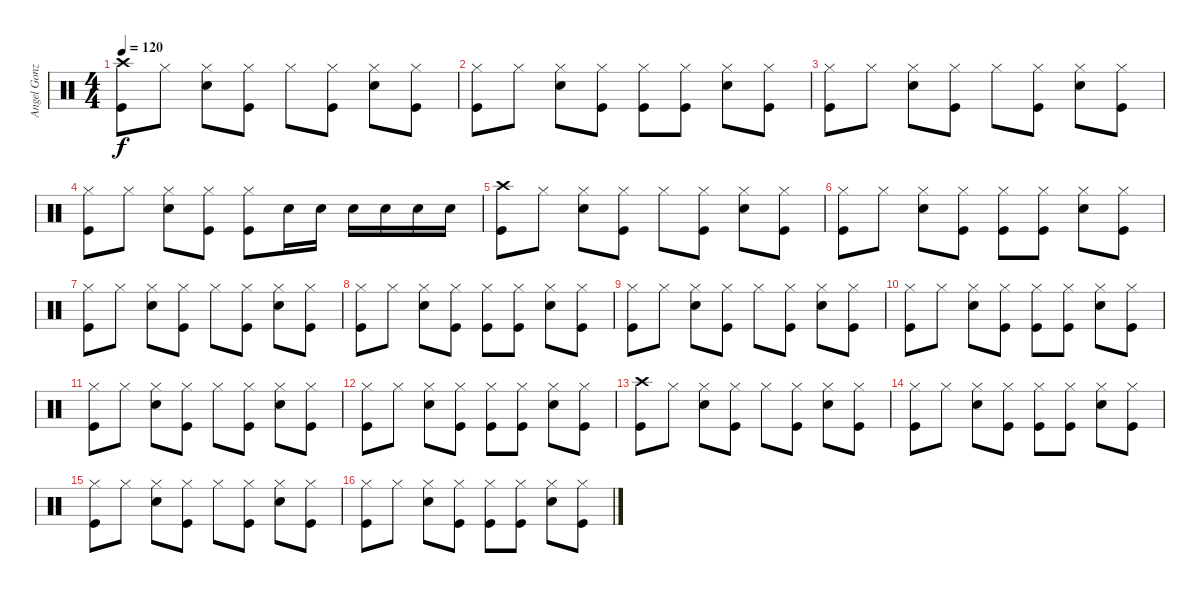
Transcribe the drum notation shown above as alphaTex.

\track ("Angel Gonzalez - Batería" "Angel Gonz") {instrument percussion}
\staff {score}
\articulation defaults
\ts (4 4)
\tempo 120
\clef neutral
\ks c
("Crash high (hit)" "Kick (hit)").8{dy f} "Hi-Hat (closed)".8 ("Hi-Hat (closed)" "Electric Snare (hit)").8 ("Hi-Hat (closed)" "Kick (hit)").8 "Hi-Hat (closed)".8 ("Hi-Hat (closed)" "Kick (hit)").8 ("Hi-Hat (closed)" "Electric Snare (hit)").8 ("Hi-Hat (closed)" "Kick (hit)").8 |
("Hi-Hat (closed)" "Kick (hit)").8 "Hi-Hat (closed)".8 ("Hi-Hat (closed)" "Electric Snare (hit)").8 ("Hi-Hat (closed)" "Kick (hit)").8 ("Hi-Hat (closed)" "Kick (hit)").8 ("Hi-Hat (closed)" "Kick (hit)").8 ("Hi-Hat (closed)" "Electric Snare (hit)").8 ("Hi-Hat (closed)" "Kick (hit)").8 |
("Hi-Hat (closed)" "Kick (hit)").8 "Hi-Hat (closed)".8 ("Hi-Hat (closed)" "Electric Snare (hit)").8 ("Hi-Hat (closed)" "Kick (hit)").8 "Hi-Hat (closed)".8 ("Hi-Hat (closed)" "Kick (hit)").8 ("Hi-Hat (closed)" "Electric Snare (hit)").8 ("Hi-Hat (closed)" "Kick (hit)").8 |
("Hi-Hat (closed)" "Kick (hit)").8 "Hi-Hat (closed)".8 ("Hi-Hat (closed)" "Electric Snare (hit)").8 ("Hi-Hat (closed)" "Kick (hit)").8 ("Hi-Hat (closed)" "Kick (hit)").8 "Electric Snare (hit)".16 "Electric Snare (hit)".16 "Electric Snare (hit)".16 "Electric Snare (hit)".16 "Electric Snare (hit)".16 "Electric Snare (hit)".16 |
("Crash high (hit)" "Kick (hit)").8 "Hi-Hat (closed)".8 ("Hi-Hat (closed)" "Electric Snare (hit)").8 ("Hi-Hat (closed)" "Kick (hit)").8 "Hi-Hat (closed)".8 ("Hi-Hat (closed)" "Kick (hit)").8 ("Hi-Hat (closed)" "Electric Snare (hit)").8 ("Hi-Hat (closed)" "Kick (hit)").8 |
("Hi-Hat (closed)" "Kick (hit)").8 "Hi-Hat (closed)".8 ("Hi-Hat (closed)" "Electric Snare (hit)").8 ("Hi-Hat (closed)" "Kick (hit)").8 ("Hi-Hat (closed)" "Kick (hit)").8 ("Hi-Hat (closed)" "Kick (hit)").8 ("Hi-Hat (closed)" "Electric Snare (hit)").8 ("Hi-Hat (closed)" "Kick (hit)").8 |
("Hi-Hat (closed)" "Kick (hit)").8 "Hi-Hat (closed)".8 ("Hi-Hat (closed)" "Electric Snare (hit)").8 ("Hi-Hat (closed)" "Kick (hit)").8 "Hi-Hat (closed)".8 ("Hi-Hat (closed)" "Kick (hit)").8 ("Hi-Hat (closed)" "Electric Snare (hit)").8 ("Hi-Hat (closed)" "Kick (hit)").8 |
("Hi-Hat (closed)" "Kick (hit)").8 "Hi-Hat (closed)".8 ("Hi-Hat (closed)" "Electric Snare (hit)").8 ("Hi-Hat (closed)" "Kick (hit)").8 ("Hi-Hat (closed)" "Kick (hit)").8 ("Hi-Hat (closed)" "Kick (hit)").8 ("Hi-Hat (closed)" "Electric Snare (hit)").8 ("Hi-Hat (closed)" "Kick (hit)").8 |
("Hi-Hat (closed)" "Kick (hit)").8 "Hi-Hat (closed)".8 ("Hi-Hat (closed)" "Electric Snare (hit)").8 ("Hi-Hat (closed)" "Kick (hit)").8 "Hi-Hat (closed)".8 ("Hi-Hat (closed)" "Kick (hit)").8 ("Hi-Hat (closed)" "Electric Snare (hit)").8 ("Hi-Hat (closed)" "Kick (hit)").8 |
("Hi-Hat (closed)" "Kick (hit)").8 "Hi-Hat (closed)".8 ("Hi-Hat (closed)" "Electric Snare (hit)").8 ("Hi-Hat (closed)" "Kick (hit)").8 ("Hi-Hat (closed)" "Kick (hit)").8 ("Hi-Hat (closed)" "Kick (hit)").8 ("Hi-Hat (closed)" "Electric Snare (hit)").8 ("Hi-Hat (closed)" "Kick (hit)").8 |
("Hi-Hat (closed)" "Kick (hit)").8 "Hi-Hat (closed)".8 ("Hi-Hat (closed)" "Electric Snare (hit)").8 ("Hi-Hat (closed)" "Kick (hit)").8 "Hi-Hat (closed)".8 ("Hi-Hat (closed)" "Kick (hit)").8 ("Hi-Hat (closed)" "Electric Snare (hit)").8 ("Hi-Hat (closed)" "Kick (hit)").8 |
("Hi-Hat (closed)" "Kick (hit)").8 "Hi-Hat (closed)".8 ("Hi-Hat (closed)" "Electric Snare (hit)").8 ("Hi-Hat (closed)" "Kick (hit)").8 ("Hi-Hat (closed)" "Kick (hit)").8 ("Hi-Hat (closed)" "Kick (hit)").8 ("Hi-Hat (closed)" "Electric Snare (hit)").8 ("Hi-Hat (closed)" "Kick (hit)").8 |
("Crash high (hit)" "Kick (hit)").8 "Hi-Hat (closed)".8 ("Hi-Hat (closed)" "Electric Snare (hit)").8 ("Hi-Hat (closed)" "Kick (hit)").8 "Hi-Hat (closed)".8 ("Hi-Hat (closed)" "Kick (hit)").8 ("Hi-Hat (closed)" "Electric Snare (hit)").8 ("Hi-Hat (closed)" "Kick (hit)").8 |
("Hi-Hat (closed)" "Kick (hit)").8 "Hi-Hat (closed)".8 ("Hi-Hat (closed)" "Electric Snare (hit)").8 ("Hi-Hat (closed)" "Kick (hit)").8 ("Hi-Hat (closed)" "Kick (hit)").8 ("Hi-Hat (closed)" "Kick (hit)").8 ("Hi-Hat (closed)" "Electric Snare (hit)").8 ("Hi-Hat (closed)" "Kick (hit)").8 |
("Hi-Hat (closed)" "Kick (hit)").8 "Hi-Hat (closed)".8 ("Hi-Hat (closed)" "Electric Snare (hit)").8 ("Hi-Hat (closed)" "Kick (hit)").8 "Hi-Hat (closed)".8 ("Hi-Hat (closed)" "Kick (hit)").8 ("Hi-Hat (closed)" "Electric Snare (hit)").8 ("Hi-Hat (closed)" "Kick (hit)").8 |
("Hi-Hat (closed)" "Kick (hit)").8 "Hi-Hat (closed)".8 ("Hi-Hat (closed)" "Electric Snare (hit)").8 ("Hi-Hat (closed)" "Kick (hit)").8 ("Hi-Hat (closed)" "Kick (hit)").8 ("Hi-Hat (closed)" "Kick (hit)").8 ("Hi-Hat (closed)" "Electric Snare (hit)").8 ("Hi-Hat (closed)" "Kick (hit)").8
